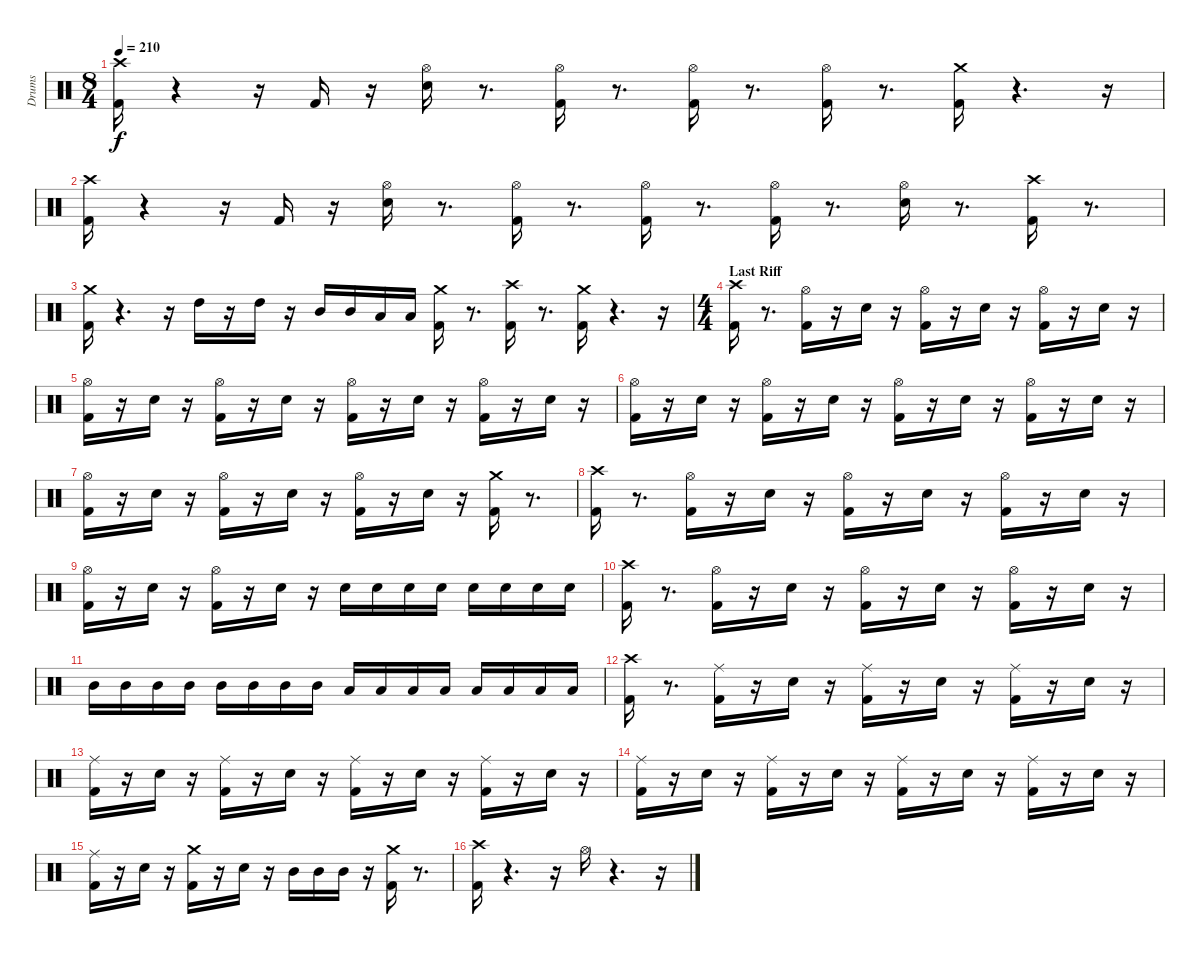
\track ("Drums" "Drums") {instrument percussion}
\staff {score}
\articulation defaults
\ts (8 4)
\tempo 210
\clef neutral
\ks c
("Kick (hit) 2" "Crash high (hit)").16{dy f} r.4 r.16 "Kick (hit) 2".16 r.16 ("Snare (hit) 2" "Hi-Hat (open)").16 r.8{d} ("Kick (hit) 2" "Hi-Hat (open)").16 r.8{d} ("Kick (hit) 2" "Hi-Hat (open)").16 r.8{d} ("Hi-Hat (open)" "Kick (hit) 2").16 r.8{d} ("Crash medium (hit)" "Kick (hit) 2").16 r.4{d} r.16 |
("Crash high (hit)" "Kick (hit) 2").16 r.4 r.16 "Kick (hit) 2".16 r.16 ("Snare (hit) 2" "Hi-Hat (open)").16 r.8{d} ("Hi-Hat (open)" "Kick (hit) 2").16 r.8{d} ("Hi-Hat (open)" "Kick (hit) 2").16 r.8{d} ("Hi-Hat (open)" "Kick (hit) 2").16 r.8{d} ("Hi-Hat (open)" "Snare (hit) 2").16 r.8{d} ("Kick (hit) 2" "Crash high (hit)").16 r.8{d} |
("Kick (hit) 2" "Crash medium (hit)").16 r.4{d} r.16 "High Tom (hit)".16 r.16 "High Tom (hit)".16 r.16 "Mid Tom (hit)".16 "Mid Tom (hit)".16 "Low Tom (hit)".16 "Low Tom (hit)".16 ("Kick (hit) 2" "Crash medium (hit)").16 r.8{d} ("Crash high (hit)" "Kick (hit) 2").16 r.8{d} ("Kick (hit) 2" "Crash medium (hit)").16 r.4{d} r.16 |
\ts (4 4)
\section ("" "Last Riff")
("Crash high (hit)" "Kick (hit) 2").16 r.8{d} ("Hi-Hat (open)" "Kick (hit) 2").16 r.16 "Snare (hit) 2".16 r.16 ("Hi-Hat (open)" "Kick (hit) 2").16 r.16 "Snare (hit) 2".16 r.16 ("Hi-Hat (open)" "Kick (hit) 2").16 r.16 "Snare (hit) 2".16 r.16 |
("Hi-Hat (open)" "Kick (hit) 2").16 r.16 "Snare (hit) 2".16 r.16 ("Kick (hit) 2" "Hi-Hat (open)").16 r.16 "Snare (hit) 2".16 r.16 ("Kick (hit) 2" "Hi-Hat (open)").16 r.16 "Snare (hit) 2".16 r.16 ("Kick (hit) 2" "Hi-Hat (open)").16 r.16 "Snare (hit) 2".16 r.16 |
("Hi-Hat (open)" "Kick (hit) 2").16 r.16 "Snare (hit) 2".16 r.16 ("Hi-Hat (open)" "Kick (hit) 2").16 r.16 "Snare (hit) 2".16 r.16 ("Hi-Hat (open)" "Kick (hit) 2").16 r.16 "Snare (hit) 2".16 r.16 ("Kick (hit) 2" "Hi-Hat (open)").16 r.16 "Snare (hit) 2".16 r.16 |
("Hi-Hat (open)" "Kick (hit) 2").16 r.16 "Snare (hit) 2".16 r.16 ("Kick (hit) 2" "Hi-Hat (open)").16 r.16 "Snare (hit) 2".16 r.16 ("Kick (hit) 2" "Hi-Hat (open)").16 r.16 "Snare (hit) 2".16 r.16 ("Kick (hit) 2" "Crash medium (hit)").16 r.8{d} |
("Kick (hit) 2" "Crash high (hit)").16 r.8{d} ("Kick (hit) 2" "Hi-Hat (open)").16 r.16 "Snare (hit) 2".16 r.16 ("Kick (hit) 2" "Hi-Hat (open)").16 r.16 "Snare (hit) 2".16 r.16 ("Hi-Hat (open)" "Kick (hit) 2").16 r.16 "Snare (hit) 2".16 r.16 |
("Kick (hit) 2" "Hi-Hat (open)").16 r.16 "Snare (hit) 2".16 r.16 ("Kick (hit) 2" "Hi-Hat (open)").16 r.16 "Snare (hit) 2".16 r.16 "Snare (hit) 2".16 "Snare (hit) 2".16 "Snare (hit) 2".16 "Snare (hit) 2".16 "Snare (hit) 2".16 "Snare (hit) 2".16 "Snare (hit) 2".16 "Snare (hit) 2".16 |
("Kick (hit) 2" "Crash high (hit)").16 r.8{d} ("Hi-Hat (open)" "Kick (hit) 2").16 r.16 "Snare (hit) 2".16 r.16 ("Kick (hit) 2" "Hi-Hat (open)").16 r.16 "Snare (hit) 2".16 r.16 ("Kick (hit) 2" "Hi-Hat (open)").16 r.16 "Snare (hit) 2".16 r.16 |
"Mid Tom (hit)".16 "Mid Tom (hit)".16 "Mid Tom (hit)".16 "Mid Tom (hit)".16 "Mid Tom (hit)".16 "Mid Tom (hit)".16 "Mid Tom (hit)".16 "Mid Tom (hit)".16 "Low Tom (hit)".16 "Low Tom (hit)".16 "Low Tom (hit)".16 "Low Tom (hit)".16 "Low Tom (hit)".16 "Low Tom (hit)".16 "Low Tom (hit)".16 "Low Tom (hit)".16 |
("Kick (hit) 2" "Crash high (hit)").16 r.8{d} ("Kick (hit) 2" "Ride (middle)").16 r.16 "Snare (hit) 2".16 r.16 ("Kick (hit) 2" "Ride (middle)").16 r.16 "Snare (hit) 2".16 r.16 ("Kick (hit) 2" "Ride (middle)").16 r.16 "Snare (hit) 2".16 r.16 |
("Kick (hit) 2" "Ride (middle)").16 r.16 "Snare (hit) 2".16 r.16 ("Kick (hit) 2" "Ride (middle)").16 r.16 "Snare (hit) 2".16 r.16 ("Kick (hit) 2" "Ride (middle)").16 r.16 "Snare (hit) 2".16 r.16 ("Ride (middle)" "Kick (hit) 2").16 r.16 "Snare (hit) 2".16 r.16 |
("Kick (hit) 2" "Ride (middle)").16 r.16 "Snare (hit) 2".16 r.16 ("Kick (hit) 2" "Ride (middle)").16 r.16 "Snare (hit) 2".16 r.16 ("Ride (middle)" "Kick (hit) 2").16 r.16 "Snare (hit) 2".16 r.16 ("Ride (middle)" "Kick (hit) 2").16 r.16 "Snare (hit) 2".16 r.16 |
("Kick (hit) 2" "Ride (middle)").16 r.16 "Snare (hit) 2".16 r.16 ("Crash medium (hit)" "Kick (hit) 2").16 r.16 "Snare (hit) 2".16 r.16 "Mid Tom (hit)".16 "Mid Tom (hit)".16 "Mid Tom (hit)".16 r.16 ("Kick (hit) 2" "Crash medium (hit)").16 r.8{d} |
("Crash high (hit)" "Kick (hit) 2").16 r.4{d} r.16 "Hi-Hat (open)".16 r.4{d} r.16
